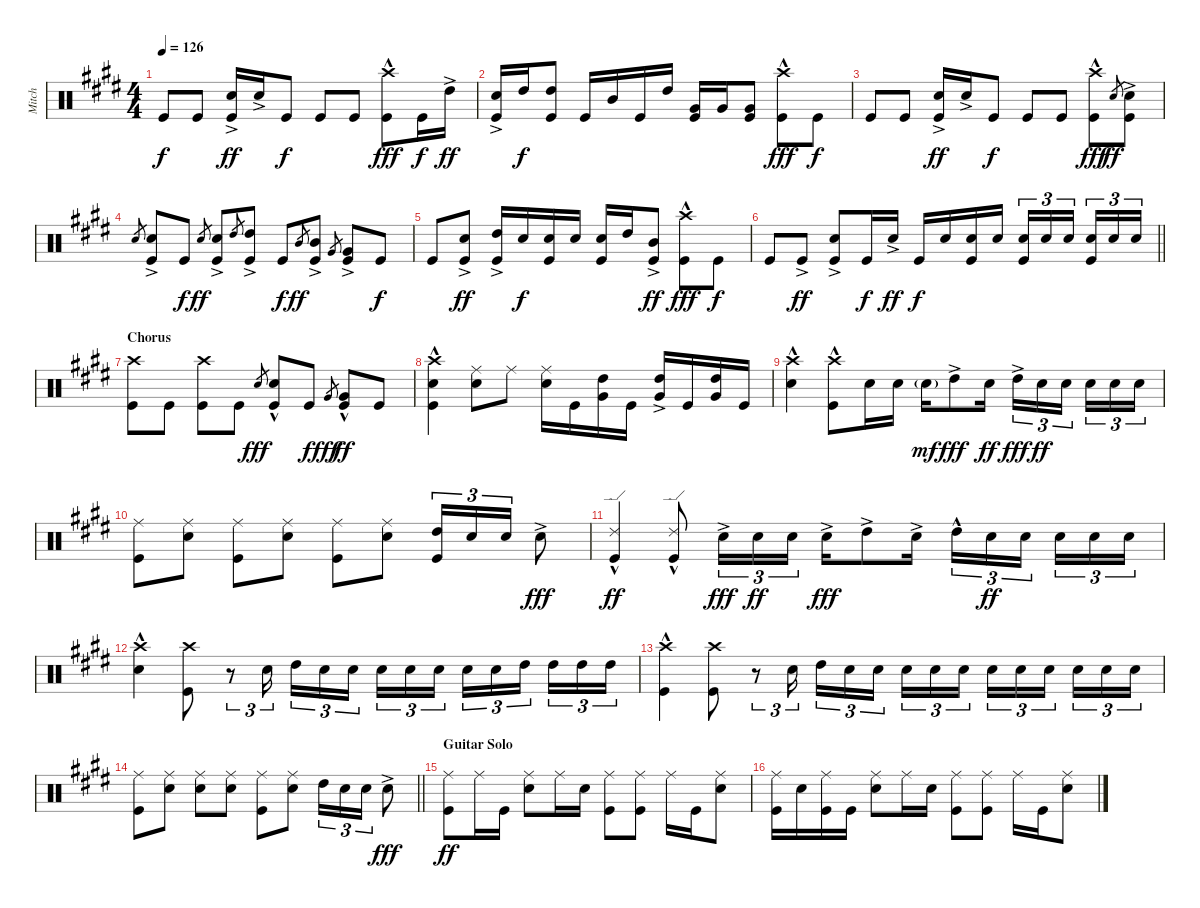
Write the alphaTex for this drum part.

\track ("Mitch" "Mitch") {instrument percussion}
\staff {score}
\articulation defaults
\ts (4 4)
\tempo 126
\clef neutral
\ks e "Kick (hit)".8{dy f} "Kick (hit)".8
("Snare (hit) 2"{ac} "Kick (hit)").16{dy ff} "Snare (hit) 2"{ac}.16 "Kick (hit)".8{dy f} "Kick (hit)".8 "Kick (hit)".8 ("Crash high (hit)"{hac} "Kick (hit)").8{dy fff} "Kick (hit)".16{dy f} "High Tom (hit)"{ac}.16{dy ff} |
("Snare (hit) 2"{ac} "Kick (hit)").16 "High Tom (hit)".16{dy f} ("High Tom (hit)" "Kick (hit)").8 "Kick (hit)".16 "Mid Tom (hit)".16 "Kick (hit)".16 "High Tom (hit)".16 ("Very Low Tom (hit)" "Kick (hit)").16 "Very Low Tom (hit)".16 ("Very Low Tom (hit)" "Kick (hit)").8 ("Crash high (hit)"{hac} "Kick (hit)").8{dy fff} "Kick (hit)".8{dy f} |
"Kick (hit)".8 "Kick (hit)".8 ("Snare (hit) 2"{ac} "Kick (hit)").16{dy ff} "Snare (hit) 2"{ac}.16 "Kick (hit)".8{dy f} "Kick (hit)".8 "Kick (hit)".8 ("Crash high (hit)"{hac} "Kick (hit)").8{dy fff} "Snare (hit) 2".8{gr dy ff} ("Snare (hit) 2"{ac} "Kick (hit)").8 |
"Snare (hit) 2".8{gr} ("Snare (hit) 2"{ac} "Kick (hit)").8 "Kick (hit)".8{dy f} "Snare (hit) 2".8{gr dy ff} ("Snare (hit) 2"{ac} "Kick (hit)").8 "High Tom (hit)".8{gr} ("High Tom (hit)"{ac} "Kick (hit)").8 "Kick (hit)".8{dy f} "Mid Tom (hit)".8{gr dy ff} ("Mid Tom (hit)"{ac} "Kick (hit)").8 "Very Low Tom (hit)".8{gr} ("Very Low Tom (hit)"{ac} "Kick (hit)").8 "Kick (hit)".8{dy f} |
"Kick (hit)".8 ("Snare (hit) 2"{ac} "Kick (hit)").8{dy ff} ("High Tom (hit)"{ac} "Kick (hit)").16 "Snare (hit) 2".16{dy f} ("Snare (hit) 2" "Kick (hit)").16 "Snare (hit) 2".16 ("Snare (hit) 2" "Kick (hit)").16 "High Tom (hit)".16 ("Mid Tom (hit)"{ac} "Kick (hit)").8{dy ff} ("Crash high (hit)"{hac} "Kick (hit)").8{dy fff} "Kick (hit)".8{dy f} |
\barLineRight lightlight "Kick (hit)".8 "Kick (hit)"{ac}.8{dy ff}
("Snare (hit) 2"{ac} "Kick (hit)").8 "Kick (hit)".16{dy f} "Snare (hit) 2"{ac}.16{dy ff} "Kick (hit)".16{dy f} "Snare (hit) 2".16 ("Snare (hit) 2" "Kick (hit)").16 "Snare (hit) 2".16 ("Snare (hit) 2" "Kick (hit)").16{tu (3 2)} "Snare (hit) 2".16{tu (3 2)} "Snare (hit) 2".16{tu (3 2) beam splitsecondary} ("Snare (hit) 2" "Kick (hit)").16{tu (3 2)} "Snare (hit) 2".16{tu (3 2)} "Snare (hit) 2".16{tu (3 2)} |
\section ("" "Chorus")
("Crash high (hit)" "Kick (hit)").8 "Kick (hit)".8 ("Crash high (hit)" "Kick (hit)").8 "Kick (hit)".8 "Snare (hit) 2".8{gr dy fff} ("Snare (hit) 2"{hac} "Kick (hit)").8 "Kick (hit)".8{dy f} "Very Low Tom (hit)".8{gr dy fff} ("Very Low Tom (hit)"{hac} "Kick (hit)").8{dy ff} "Kick (hit)".8 |
("Crash high (hit)"{hac} "Snare (hit) 2" "Kick (hit)").4 ("Ride (middle)" "Snare (hit) 2").8 "Ride (middle)".8 ("Ride (middle)" "Snare (hit) 2").16 "Kick (hit)".16 ("High Tom (hit)" "Very Low Tom (hit)").16 "Kick (hit)".16 ("High Tom (hit)"{ac} "Very Low Tom (hit)").16 "Kick (hit)".16 ("High Tom (hit)" "Very Low Tom (hit)").16 "Kick (hit)".16 |
("Crash high (hit)"{hac} "Snare (hit) 2").4 ("Crash high (hit)"{hac} "Kick (hit)").8 "Snare (hit) 2".16 "Snare (hit) 2".16 "Snare (hit) 2"{g}.16{dy mf} "High Tom (hit)"{ac}.8{dy fff} "Snare (hit) 2".16{dy ff} "High Tom (hit)"{ac}.16{tu (3 2) dy fff} "Snare (hit) 2".16{tu (3 2) dy ff} "Snare (hit) 2".16{tu (3 2) beam splitsecondary} "Snare (hit) 2".16{tu (3 2)} "Snare (hit) 2".16{tu (3 2)} "Snare (hit) 2".16{tu (3 2)} |
("Ride (middle)" "Kick (hit)").8 ("Ride (middle)" "Snare (hit) 2").8 ("Ride (middle)" "Kick (hit)").8 ("Ride (middle)" "Snare (hit) 2").8 ("Ride (middle)" "Kick (hit)").8 ("Ride (middle)" "Snare (hit) 2").8 ("High Tom (hit)" "Kick (hit)").16{tu (3 2)} "Snare (hit) 2".16{tu (3 2)} "Snare (hit) 2".16{tu (3 2)} "Snare (hit) 2"{ac}.8{dy fff} |
("Ride (edge) 2"{hac} "Kick (hit)").4{dy ff} ("Ride (edge) 2"{hac} "Kick (hit)").8 "Snare (hit) 2"{ac}.16{tu (3 2) dy fff} "Snare (hit) 2".16{tu (3 2) dy ff} "Snare (hit) 2".16{tu (3 2)} "Snare (hit) 2"{ac}.16{dy fff} "High Tom (hit)"{ac}.8 "Snare (hit) 2"{ac}.16 "High Tom (hit)"{hac}.16{tu (3 2)} "Snare (hit) 2".16{tu (3 2) dy ff} "Snare (hit) 2".16{tu (3 2) beam splitsecondary} "Snare (hit) 2".16{tu (3 2)} "Snare (hit) 2".16{tu (3 2)} "Snare (hit) 2".16{tu (3 2)} |
("Crash high (hit)"{hac} "Snare (hit) 2").4 ("Crash high (hit)" "Kick (hit)").8 r.8{tu (3 2)} "Snare (hit) 2".16{tu (3 2)} "High Tom (hit)".16{tu (3 2)} "Snare (hit) 2".16{tu (3 2)} "Snare (hit) 2".16{tu (3 2) beam splitsecondary} "Snare (hit) 2".16{tu (3 2)} "Snare (hit) 2".16{tu (3 2)} "Snare (hit) 2".16{tu (3 2)} "Snare (hit) 2".16{tu (3 2)} "Snare (hit) 2".16{tu (3 2)} "High Tom (hit)".16{tu (3 2) beam splitsecondary} "High Tom (hit)".16{tu (3 2)} "High Tom (hit)".16{tu (3 2)} "High Tom (hit)".16{tu (3 2)} |
("Crash high (hit)"{hac} "Kick (hit)").4 ("Crash high (hit)" "Kick (hit)").8 r.8{tu (3 2)} "Snare (hit) 2".16{tu (3 2)} "High Tom (hit)".16{tu (3 2)} "Snare (hit) 2".16{tu (3 2)} "Snare (hit) 2".16{tu (3 2) beam splitsecondary} "Snare (hit) 2".16{tu (3 2)} "Snare (hit) 2".16{tu (3 2)} "Snare (hit) 2".16{tu (3 2)} "Snare (hit) 2".16{tu (3 2)} "Snare (hit) 2".16{tu (3 2)} "Snare (hit) 2".16{tu (3 2) beam splitsecondary} "Snare (hit) 2".16{tu (3 2)} "Snare (hit) 2".16{tu (3 2)} "Snare (hit) 2".16{tu (3 2)} |
\barLineRight lightlight
("Ride (middle)" "Kick (hit)").8 ("Ride (middle)" "Snare (hit) 2").8 ("Ride (middle)" "Snare (hit) 2").8 ("Ride (middle)" "Snare (hit) 2").8 ("Ride (middle)" "Kick (hit)").8 ("Ride (middle)" "Snare (hit) 2").8 "High Tom (hit)".16{tu (3 2)} "Snare (hit) 2".16{tu (3 2)} "Snare (hit) 2".16{tu (3 2)} "Snare (hit) 2"{ac}.8{dy fff} |
\section ("" "Guitar Solo")
("Ride (middle)" "Kick (hit)").8{dy ff} "Ride (middle)".16 "Kick (hit)".16 ("Ride (middle)" "Snare (hit) 2").8 "Ride (middle)".16 "Snare (hit) 2".16 ("Ride (middle)" "Kick (hit)").8 ("Ride (middle)" "Kick (hit)").8 "Ride (middle)".16 "Kick (hit)".16 ("Ride (middle)" "Snare (hit) 2").8 |
("Ride (middle)" "Kick (hit)").16 "Snare (hit) 2".16 ("Ride (middle)" "Kick (hit)").16 "Kick (hit)".16 ("Ride (middle)" "Snare (hit) 2").8 "Ride (middle)".16 "Snare (hit) 2".16 ("Ride (middle)" "Kick (hit)").8 ("Ride (middle)" "Kick (hit)").8 "Ride (middle)".16 "Kick (hit)".16 ("Ride (middle)" "Snare (hit) 2").8
